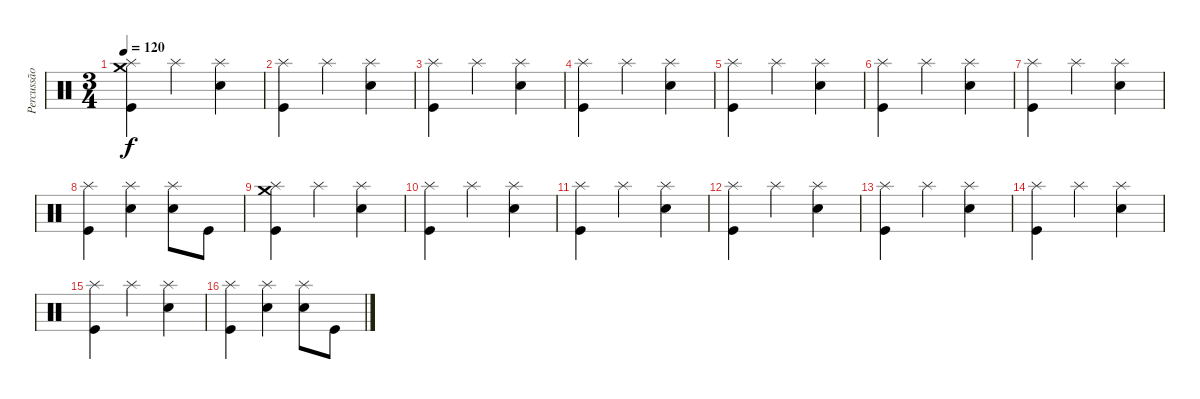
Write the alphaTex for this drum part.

\track ("Percussão" "Percussão") {instrument percussion}
\staff {score}
\articulation defaults
\ts (3 4)
\tempo 120
\clef neutral
\ks c
("Kick (hit)" "Crash medium (hit)" "Splash (hit)").4{dy f} "Splash (hit)".4 ("Electric Snare (hit)" "Splash (hit)").4 |
("Kick (hit)" "Splash (hit)").4 "Splash (hit)".4 ("Electric Snare (hit)" "Splash (hit)").4 |
("Kick (hit)" "Splash (hit)").4 "Splash (hit)".4 ("Electric Snare (hit)" "Splash (hit)").4 |
("Kick (hit)" "Splash (hit)").4 "Splash (hit)".4 ("Electric Snare (hit)" "Splash (hit)").4 |
("Kick (hit)" "Splash (hit)").4 "Splash (hit)".4 ("Electric Snare (hit)" "Splash (hit)").4 |
("Kick (hit)" "Splash (hit)").4 "Splash (hit)".4 ("Electric Snare (hit)" "Splash (hit)").4 |
("Kick (hit)" "Splash (hit)").4 "Splash (hit)".4 ("Electric Snare (hit)" "Splash (hit)").4 |
("Kick (hit)" "Splash (hit)").4 ("Electric Snare (hit)" "Splash (hit)").4 ("Electric Snare (hit)" "Splash (hit)").8 "Kick (hit)".8 |
("Kick (hit)" "Crash medium (hit)" "Splash (hit)").4 "Splash (hit)".4 ("Electric Snare (hit)" "Splash (hit)").4 |
("Kick (hit)" "Splash (hit)").4 "Splash (hit)".4 ("Electric Snare (hit)" "Splash (hit)").4 |
("Kick (hit)" "Splash (hit)").4 "Splash (hit)".4 ("Electric Snare (hit)" "Splash (hit)").4 |
("Kick (hit)" "Splash (hit)").4 "Splash (hit)".4 ("Electric Snare (hit)" "Splash (hit)").4 |
("Kick (hit)" "Splash (hit)").4 "Splash (hit)".4 ("Electric Snare (hit)" "Splash (hit)").4 |
("Kick (hit)" "Splash (hit)").4 "Splash (hit)".4 ("Electric Snare (hit)" "Splash (hit)").4 |
("Kick (hit)" "Splash (hit)").4 "Splash (hit)".4 ("Electric Snare (hit)" "Splash (hit)").4 |
("Kick (hit)" "Splash (hit)").4 ("Electric Snare (hit)" "Splash (hit)").4 ("Electric Snare (hit)" "Splash (hit)").8 "Kick (hit)".8
